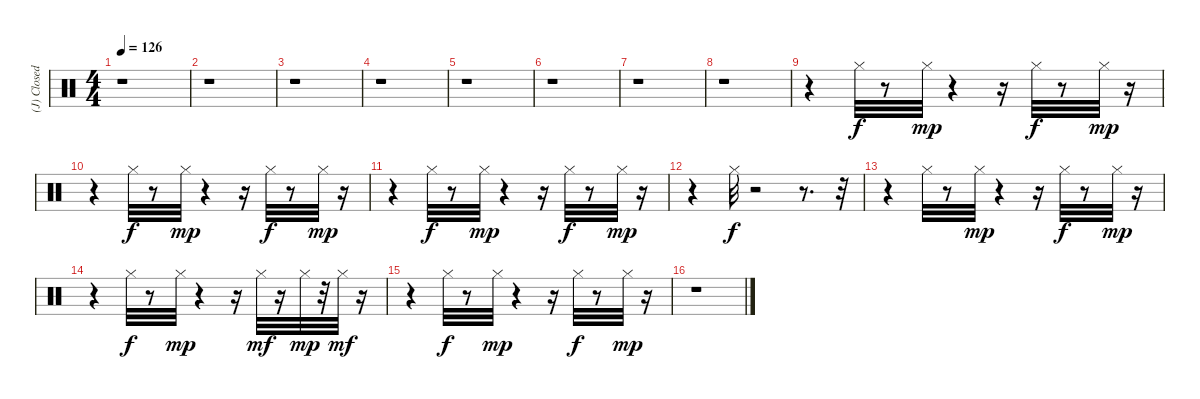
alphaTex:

\track ("(J) Closed Hi Hat" "(J) Closed") {instrument percussion}
\staff {score}
\articulation defaults
\ts (4 4)
\tempo 126
\clef neutral
\ks c
r.1{dy mf} |
r.1 |
r.1 |
r.1 |
r.1 |
r.1 |
r.1 |
r.1 |
r.4 "Hi-Hat (closed)".32{dy f} r.8 "Hi-Hat (closed)".32{dy mp} r.4 r.16 "Hi-Hat (closed)".32{dy f} r.8 "Hi-Hat (closed)".32{dy mp} r.16 |
r.4 "Hi-Hat (closed)".32{dy f} r.8 "Hi-Hat (closed)".32{dy mp} r.4 r.16 "Hi-Hat (closed)".32{dy f} r.8 "Hi-Hat (closed)".32{dy mp} r.16 |
r.4 "Hi-Hat (closed)".32{dy f} r.8 "Hi-Hat (closed)".32{dy mp} r.4 r.16 "Hi-Hat (closed)".32{dy f} r.8 "Hi-Hat (closed)".32{dy mp} r.16 |
r.4 "Hi-Hat (closed)".32{dy f} r.2 r.8{d} r.32 |
r.4 "Hi-Hat (closed)".32 r.8 "Hi-Hat (closed)".32{dy mp} r.4 r.16 "Hi-Hat (closed)".32{dy f} r.8 "Hi-Hat (closed)".32{dy mp} r.16 |
r.4 "Hi-Hat (closed)".32{dy f} r.8 "Hi-Hat (closed)".32{dy mp} r.4 r.16 "Hi-Hat (closed)".32{dy mf} r.16 "Hi-Hat (closed)".32{dy mp} r.32 "Hi-Hat (closed)".32{dy mf} r.16 |
r.4 "Hi-Hat (closed)".32{dy f} r.8 "Hi-Hat (closed)".32{dy mp} r.4 r.16 "Hi-Hat (closed)".32{dy f} r.8 "Hi-Hat (closed)".32{dy mp} r.16 |
r.1
